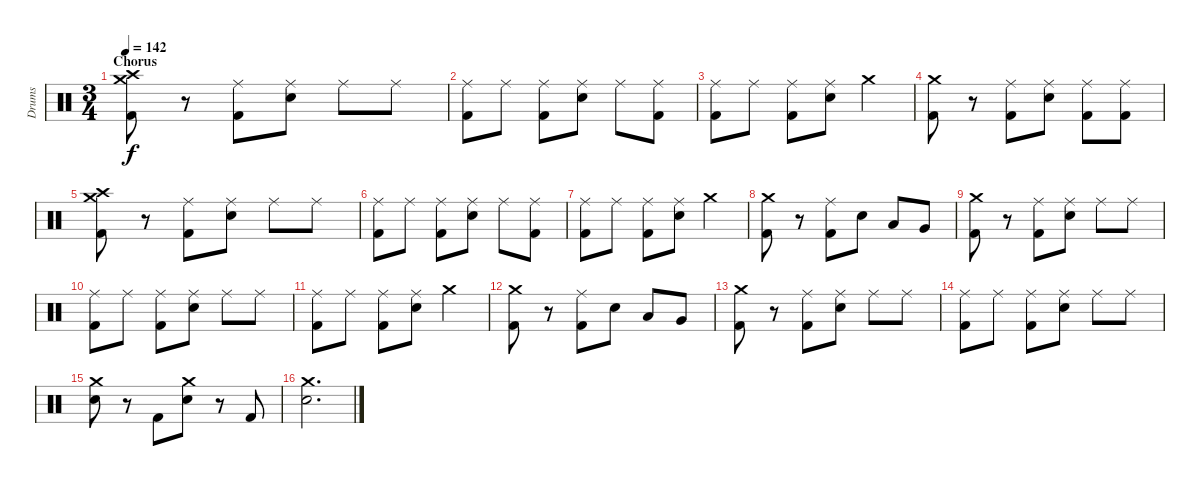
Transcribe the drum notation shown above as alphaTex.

\track ("Drums" "Drums") {instrument percussion}
\staff {score}
\articulation defaults
\ts (3 4)
\section ("" "Chorus")
\tempo 142
\clef neutral
\ks c
("Crash medium (hit)" "Crash high (hit)" "Kick (hit) 2").8{dy f} r.8 ("Ride (middle)" "Kick (hit) 2").8 ("Ride (middle)" "Electric Snare (hit)").8 "Ride (middle)".8 "Ride (middle)".8 |
("Ride (middle)" "Kick (hit) 2").8 "Ride (middle)".8 ("Ride (middle)" "Kick (hit) 2").8 ("Ride (middle)" "Electric Snare (hit)").8 "Ride (middle)".8 ("Ride (middle)" "Kick (hit) 2").8 |
("Ride (middle)" "Kick (hit) 2").8 "Ride (middle)".8 ("Ride (middle)" "Kick (hit) 2").8 ("Ride (middle)" "Electric Snare (hit)").8 "Crash medium (hit)".4 |
("Crash medium (hit)" "Kick (hit) 2").8 r.8 ("Ride (middle)" "Kick (hit) 2").8 ("Ride (middle)" "Electric Snare (hit)").8 ("Ride (middle)" "Kick (hit) 2").8 ("Ride (middle)" "Kick (hit) 2").8 |
("Crash medium (hit)" "Crash high (hit)" "Kick (hit) 2").8 r.8 ("Ride (middle)" "Kick (hit) 2").8 ("Ride (middle)" "Electric Snare (hit)").8 "Ride (middle)".8 "Ride (middle)".8 |
("Ride (middle)" "Kick (hit) 2").8 "Ride (middle)".8 ("Ride (middle)" "Kick (hit) 2").8 ("Ride (middle)" "Electric Snare (hit)").8 "Ride (middle)".8 ("Ride (middle)" "Kick (hit) 2").8 |
("Ride (middle)" "Kick (hit) 2").8 "Ride (middle)".8 ("Ride (middle)" "Kick (hit) 2").8 ("Ride (middle)" "Electric Snare (hit)").8 "Crash medium (hit)".4 |
("Crash medium (hit)" "Kick (hit) 2").8 r.8 ("Ride (middle)" "Kick (hit) 2").8 "Electric Snare (hit)".8 "Low Tom (hit)".8 "Very Low Tom (hit)".8 |
("Crash medium (hit)" "Kick (hit) 2").8 r.8 ("Ride (middle)" "Kick (hit) 2").8 ("Ride (middle)" "Electric Snare (hit)").8 "Ride (middle)".8 "Ride (middle)".8 |
("Ride (middle)" "Kick (hit) 2").8 "Ride (middle)".8 ("Ride (middle)" "Kick (hit) 2").8 ("Ride (middle)" "Electric Snare (hit)").8 "Ride (middle)".8 "Ride (middle)".8 |
("Ride (middle)" "Kick (hit) 2").8 "Ride (middle)".8 ("Ride (middle)" "Kick (hit) 2").8 ("Ride (middle)" "Electric Snare (hit)").8 "Crash medium (hit)".4 |
("Crash medium (hit)" "Kick (hit) 2").8 r.8 ("Ride (middle)" "Kick (hit) 2").8 "Electric Snare (hit)".8 "Low Tom (hit)".8 "Very Low Tom (hit)".8 |
("Crash medium (hit)" "Kick (hit) 2").8 r.8 ("Ride (middle)" "Kick (hit) 2").8 ("Ride (middle)" "Electric Snare (hit)").8 "Ride (middle)".8 "Ride (middle)".8 |
("Ride (middle)" "Kick (hit) 2").8 "Ride (middle)".8 ("Ride (middle)" "Kick (hit) 2").8 ("Ride (middle)" "Electric Snare (hit)").8 "Ride (middle)".8 "Ride (middle)".8 |
("Crash medium (hit)" "Electric Snare (hit)").8 r.8 "Kick (hit) 2".8 ("Crash medium (hit)" "Electric Snare (hit)").8 r.8 "Kick (hit) 2".8 |
("Crash medium (hit)" "Electric Snare (hit)").2{d}
